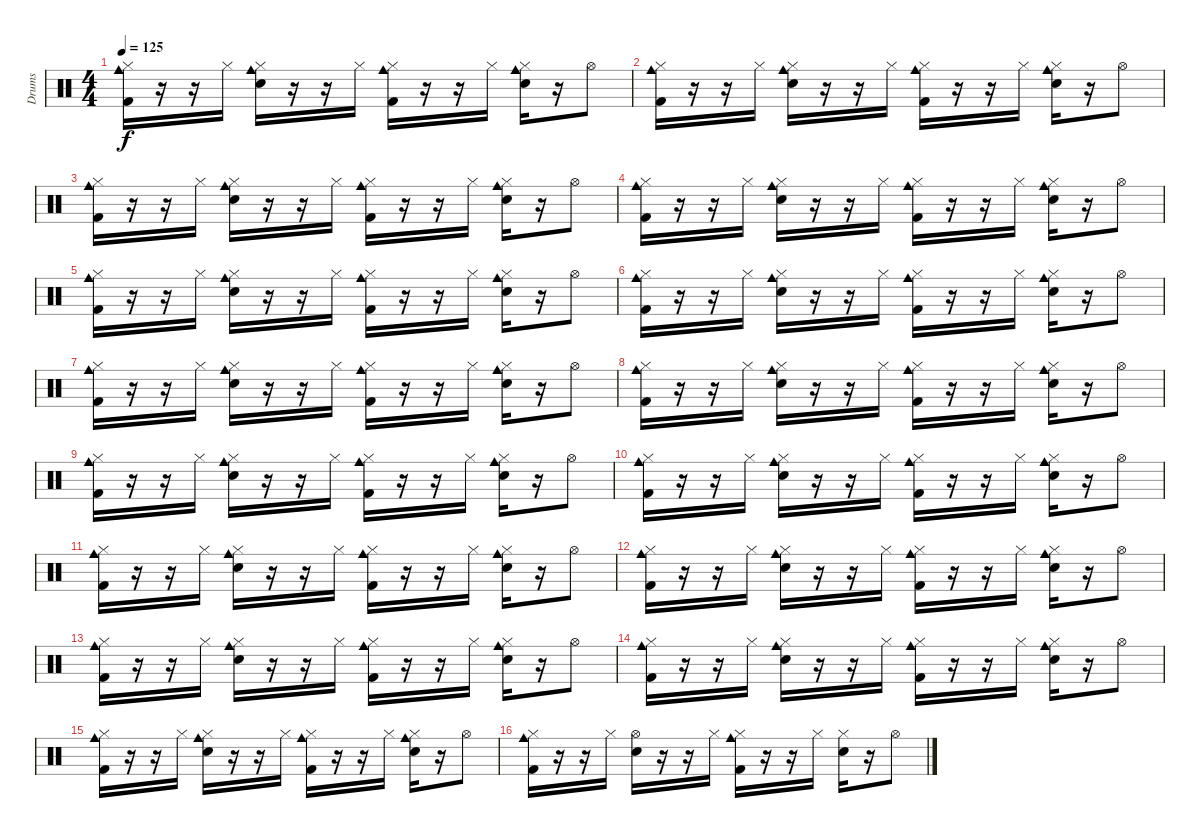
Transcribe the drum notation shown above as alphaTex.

\track ("Drums" "Drums") {instrument percussion}
\staff {score}
\articulation defaults
\ts (4 4)
\tempo 125
\clef neutral
\ks c
("Cowbell medium (hit)" "Hi-Hat (closed)" "Kick (hit) 2").16{dy f} r.16 r.16 "Hi-Hat (closed)".16 ("Cowbell medium (hit)" "Hi-Hat (closed)" "Electric Snare (hit)").16 r.16 r.16 "Hi-Hat (closed)".16 ("Cowbell medium (hit)" "Hi-Hat (closed)" "Kick (hit) 2").16 r.16 r.16 "Hi-Hat (closed)".16 ("Cowbell medium (hit)" "Hi-Hat (closed)" "Electric Snare (hit)").16 r.16 "Hi-Hat (open)".8 |
("Cowbell medium (hit)" "Hi-Hat (closed)" "Kick (hit) 2").16 r.16 r.16 "Hi-Hat (closed)".16 ("Cowbell medium (hit)" "Hi-Hat (closed)" "Electric Snare (hit)").16 r.16 r.16 "Hi-Hat (closed)".16 ("Cowbell medium (hit)" "Hi-Hat (closed)" "Kick (hit) 2").16 r.16 r.16 "Hi-Hat (closed)".16 ("Cowbell medium (hit)" "Hi-Hat (closed)" "Electric Snare (hit)").16 r.16 "Hi-Hat (open)".8 |
("Cowbell medium (hit)" "Hi-Hat (closed)" "Kick (hit) 2").16 r.16 r.16 "Hi-Hat (closed)".16 ("Cowbell medium (hit)" "Hi-Hat (closed)" "Electric Snare (hit)").16 r.16 r.16 "Hi-Hat (closed)".16 ("Cowbell medium (hit)" "Hi-Hat (closed)" "Kick (hit) 2").16 r.16 r.16 "Hi-Hat (closed)".16 ("Cowbell medium (hit)" "Hi-Hat (closed)" "Electric Snare (hit)").16 r.16 "Hi-Hat (open)".8 |
("Cowbell medium (hit)" "Hi-Hat (closed)" "Kick (hit) 2").16 r.16 r.16 "Hi-Hat (closed)".16 ("Cowbell medium (hit)" "Hi-Hat (closed)" "Electric Snare (hit)").16 r.16 r.16 "Hi-Hat (closed)".16 ("Cowbell medium (hit)" "Hi-Hat (closed)" "Kick (hit) 2").16 r.16 r.16 "Hi-Hat (closed)".16 ("Cowbell medium (hit)" "Hi-Hat (closed)" "Electric Snare (hit)").16 r.16 "Hi-Hat (open)".8 |
("Cowbell medium (hit)" "Hi-Hat (closed)" "Kick (hit) 2").16 r.16 r.16 "Hi-Hat (closed)".16 ("Cowbell medium (hit)" "Hi-Hat (closed)" "Electric Snare (hit)").16 r.16 r.16 "Hi-Hat (closed)".16 ("Cowbell medium (hit)" "Hi-Hat (closed)" "Kick (hit) 2").16 r.16 r.16 "Hi-Hat (closed)".16 ("Cowbell medium (hit)" "Hi-Hat (closed)" "Electric Snare (hit)").16 r.16 "Hi-Hat (open)".8 |
("Cowbell medium (hit)" "Hi-Hat (closed)" "Kick (hit) 2").16 r.16 r.16 "Hi-Hat (closed)".16 ("Cowbell medium (hit)" "Hi-Hat (closed)" "Electric Snare (hit)").16 r.16 r.16 "Hi-Hat (closed)".16 ("Cowbell medium (hit)" "Hi-Hat (closed)" "Kick (hit) 2").16 r.16 r.16 "Hi-Hat (closed)".16 ("Cowbell medium (hit)" "Hi-Hat (closed)" "Electric Snare (hit)").16 r.16 "Hi-Hat (open)".8 |
("Cowbell medium (hit)" "Hi-Hat (closed)" "Kick (hit) 2").16 r.16 r.16 "Hi-Hat (closed)".16 ("Cowbell medium (hit)" "Hi-Hat (closed)" "Electric Snare (hit)").16 r.16 r.16 "Hi-Hat (closed)".16 ("Cowbell medium (hit)" "Hi-Hat (closed)" "Kick (hit) 2").16 r.16 r.16 "Hi-Hat (closed)".16 ("Cowbell medium (hit)" "Hi-Hat (closed)" "Electric Snare (hit)").16 r.16 "Hi-Hat (open)".8 |
("Cowbell medium (hit)" "Hi-Hat (closed)" "Kick (hit) 2").16 r.16 r.16 "Hi-Hat (closed)".16 ("Cowbell medium (hit)" "Hi-Hat (closed)" "Electric Snare (hit)").16 r.16 r.16 "Hi-Hat (closed)".16 ("Cowbell medium (hit)" "Hi-Hat (closed)" "Kick (hit) 2").16 r.16 r.16 "Hi-Hat (closed)".16 ("Cowbell medium (hit)" "Hi-Hat (closed)" "Electric Snare (hit)").16 r.16 "Hi-Hat (open)".8 |
("Cowbell medium (hit)" "Hi-Hat (closed)" "Kick (hit) 2").16 r.16 r.16 "Hi-Hat (closed)".16 ("Cowbell medium (hit)" "Hi-Hat (closed)" "Electric Snare (hit)").16 r.16 r.16 "Hi-Hat (closed)".16 ("Cowbell medium (hit)" "Hi-Hat (closed)" "Kick (hit) 2").16 r.16 r.16 "Hi-Hat (closed)".16 ("Cowbell medium (hit)" "Hi-Hat (closed)" "Electric Snare (hit)").16 r.16 "Hi-Hat (open)".8 |
("Cowbell medium (hit)" "Hi-Hat (closed)" "Kick (hit) 2").16 r.16 r.16 "Hi-Hat (closed)".16 ("Cowbell medium (hit)" "Hi-Hat (closed)" "Electric Snare (hit)").16 r.16 r.16 "Hi-Hat (closed)".16 ("Cowbell medium (hit)" "Hi-Hat (closed)" "Kick (hit) 2").16 r.16 r.16 "Hi-Hat (closed)".16 ("Cowbell medium (hit)" "Hi-Hat (closed)" "Electric Snare (hit)").16 r.16 "Hi-Hat (open)".8 |
("Cowbell medium (hit)" "Hi-Hat (closed)" "Kick (hit) 2").16 r.16 r.16 "Hi-Hat (closed)".16 ("Cowbell medium (hit)" "Hi-Hat (closed)" "Electric Snare (hit)").16 r.16 r.16 "Hi-Hat (closed)".16 ("Cowbell medium (hit)" "Hi-Hat (closed)" "Kick (hit) 2").16 r.16 r.16 "Hi-Hat (closed)".16 ("Cowbell medium (hit)" "Hi-Hat (closed)" "Electric Snare (hit)").16 r.16 "Hi-Hat (open)".8 |
("Cowbell medium (hit)" "Hi-Hat (closed)" "Kick (hit) 2").16 r.16 r.16 "Hi-Hat (closed)".16 ("Cowbell medium (hit)" "Hi-Hat (closed)" "Electric Snare (hit)").16 r.16 r.16 "Hi-Hat (closed)".16 ("Cowbell medium (hit)" "Hi-Hat (closed)" "Kick (hit) 2").16 r.16 r.16 "Hi-Hat (closed)".16 ("Cowbell medium (hit)" "Hi-Hat (closed)" "Electric Snare (hit)").16 r.16 "Hi-Hat (open)".8 |
("Cowbell medium (hit)" "Hi-Hat (closed)" "Kick (hit) 2").16 r.16 r.16 "Hi-Hat (closed)".16 ("Cowbell medium (hit)" "Hi-Hat (closed)" "Electric Snare (hit)").16 r.16 r.16 "Hi-Hat (closed)".16 ("Cowbell medium (hit)" "Hi-Hat (closed)" "Kick (hit) 2").16 r.16 r.16 "Hi-Hat (closed)".16 ("Cowbell medium (hit)" "Hi-Hat (closed)" "Electric Snare (hit)").16 r.16 "Hi-Hat (open)".8 |
("Cowbell medium (hit)" "Hi-Hat (closed)" "Kick (hit) 2").16 r.16 r.16 "Hi-Hat (closed)".16 ("Cowbell medium (hit)" "Hi-Hat (closed)" "Electric Snare (hit)").16 r.16 r.16 "Hi-Hat (closed)".16 ("Cowbell medium (hit)" "Hi-Hat (closed)" "Kick (hit) 2").16 r.16 r.16 "Hi-Hat (closed)".16 ("Cowbell medium (hit)" "Hi-Hat (closed)" "Electric Snare (hit)").16 r.16 "Hi-Hat (open)".8 |
("Cowbell medium (hit)" "Hi-Hat (closed)" "Kick (hit) 2").16 r.16 r.16 "Hi-Hat (closed)".16 ("Cowbell medium (hit)" "Hi-Hat (closed)" "Electric Snare (hit)").16 r.16 r.16 "Hi-Hat (closed)".16 ("Cowbell medium (hit)" "Hi-Hat (closed)" "Kick (hit) 2").16 r.16 r.16 "Hi-Hat (closed)".16 ("Cowbell medium (hit)" "Hi-Hat (closed)" "Electric Snare (hit)").16 r.16 "Hi-Hat (open)".8 |
("Cowbell medium (hit)" "Hi-Hat (closed)" "Kick (hit) 2").16 r.16 r.16 "Hi-Hat (closed)".16 ("Hi-Hat (open)" "Electric Snare (hit)").16 r.16 r.16 "Hi-Hat (closed)".16 ("Cowbell medium (hit)" "Hi-Hat (closed)" "Kick (hit) 2").16 r.16 r.16 "Hi-Hat (closed)".16 ("Hi-Hat (closed)" "Electric Snare (hit)").16 r.16 "Hi-Hat (open)".8
